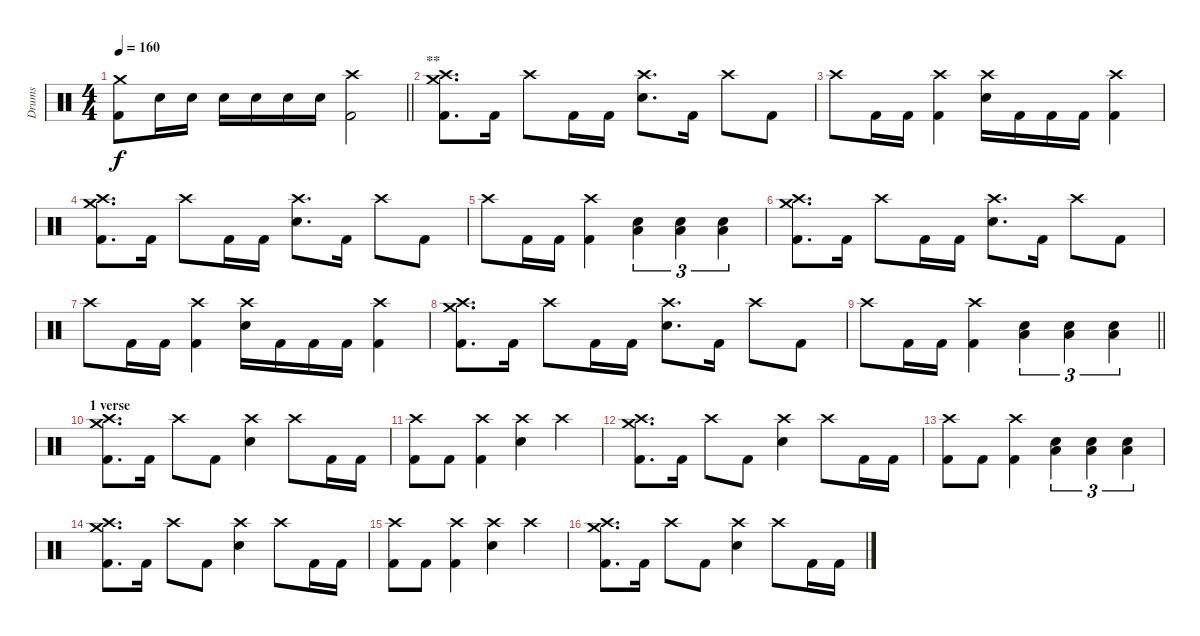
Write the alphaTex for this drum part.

\track ("Drums" "Drums") {instrument percussion}
\staff {score}
\articulation defaults
\ts (4 4)
\tempo 160
\clef neutral
\barLineRight lightlight
\ks c
("Crash medium (hit)" "Kick (hit) 2").8{dy f} "Electric Snare (hit)".16 "Electric Snare (hit)".16 "Electric Snare (hit)".16 "Electric Snare (hit)".16 "Electric Snare (hit)".16 "Electric Snare (hit)".16 ("Crash high (hit)" "Kick (hit) 2").2 |
\section ("" "**")
("Crash high (hit)" "Crash medium (hit)" "Kick (hit) 2").8{d} "Kick (hit) 2".16 "Crash high (hit)".8 "Kick (hit) 2".16 "Kick (hit) 2".16 ("Crash high (hit)" "Electric Snare (hit)").8{d} "Kick (hit) 2".16 "Crash high (hit)".8 "Kick (hit) 2".8 |
"Crash high (hit)".8 "Kick (hit) 2".16 "Kick (hit) 2".16 ("Crash high (hit)" "Kick (hit) 2").4 ("Crash high (hit)" "Electric Snare (hit)").16 "Kick (hit) 2".16 "Kick (hit) 2".16 "Kick (hit) 2".16 ("Crash high (hit)" "Kick (hit) 2").4 |
("Crash high (hit)" "Crash medium (hit)" "Kick (hit) 2").8{d} "Kick (hit) 2".16 "Crash high (hit)".8 "Kick (hit) 2".16 "Kick (hit) 2".16 ("Crash high (hit)" "Electric Snare (hit)").8{d} "Kick (hit) 2".16 "Crash high (hit)".8 "Kick (hit) 2".8 |
"Crash high (hit)".8 "Kick (hit) 2".16 "Kick (hit) 2".16 ("Crash high (hit)" "Kick (hit) 2").4 ("Low Floor Tom (hit)" "Electric Snare (hit)").4{tu (3 2)} ("Low Floor Tom (hit)" "Electric Snare (hit)").4{tu (3 2)} ("Low Floor Tom (hit)" "Electric Snare (hit)").4{tu (3 2)} |
("Crash high (hit)" "Crash medium (hit)" "Kick (hit) 2").8{d} "Kick (hit) 2".16 "Crash high (hit)".8 "Kick (hit) 2".16 "Kick (hit) 2".16 ("Crash high (hit)" "Electric Snare (hit)").8{d} "Kick (hit) 2".16 "Crash high (hit)".8 "Kick (hit) 2".8 |
"Crash high (hit)".8 "Kick (hit) 2".16 "Kick (hit) 2".16 ("Crash high (hit)" "Kick (hit) 2").4 ("Crash high (hit)" "Electric Snare (hit)").16 "Kick (hit) 2".16 "Kick (hit) 2".16 "Kick (hit) 2".16 ("Crash high (hit)" "Kick (hit) 2").4 |
("Crash high (hit)" "Crash medium (hit)" "Kick (hit) 2").8{d} "Kick (hit) 2".16 "Crash high (hit)".8 "Kick (hit) 2".16 "Kick (hit) 2".16 ("Crash high (hit)" "Electric Snare (hit)").8{d} "Kick (hit) 2".16 "Crash high (hit)".8 "Kick (hit) 2".8 |
\barLineRight lightlight "Crash high (hit)".8 "Kick (hit) 2".16 "Kick (hit) 2".16
("Crash high (hit)" "Kick (hit) 2").4 ("Low Floor Tom (hit)" "Electric Snare (hit)").4{tu (3 2)} ("Low Floor Tom (hit)" "Electric Snare (hit)").4{tu (3 2)} ("Low Floor Tom (hit)" "Electric Snare (hit)").4{tu (3 2)} |
\section ("" "1 verse")
("Crash high (hit)" "Crash medium (hit)" "Kick (hit) 2").8{d} "Kick (hit) 2".16 "Crash high (hit)".8 "Kick (hit) 2".8 ("Crash high (hit)" "Electric Snare (hit)").4 "Crash high (hit)".8 "Kick (hit) 2".16 "Kick (hit) 2".16 |
("Crash high (hit)" "Kick (hit) 2").8 "Kick (hit) 2".8 ("Crash high (hit)" "Kick (hit) 2").4 ("Crash high (hit)" "Electric Snare (hit)").4 "Crash high (hit)".4 |
("Crash high (hit)" "Crash medium (hit)" "Kick (hit) 2").8{d} "Kick (hit) 2".16 "Crash high (hit)".8 "Kick (hit) 2".8 ("Crash high (hit)" "Electric Snare (hit)").4 "Crash high (hit)".8 "Kick (hit) 2".16 "Kick (hit) 2".16 |
("Crash high (hit)" "Kick (hit) 2").8 "Kick (hit) 2".8 ("Crash high (hit)" "Kick (hit) 2").4 ("Low Floor Tom (hit)" "Electric Snare (hit)").4{tu (3 2)} ("Low Floor Tom (hit)" "Electric Snare (hit)").4{tu (3 2)} ("Low Floor Tom (hit)" "Electric Snare (hit)").4{tu (3 2)} |
("Crash high (hit)" "Crash medium (hit)" "Kick (hit) 2").8{d} "Kick (hit) 2".16 "Crash high (hit)".8 "Kick (hit) 2".8 ("Crash high (hit)" "Electric Snare (hit)").4 "Crash high (hit)".8 "Kick (hit) 2".16 "Kick (hit) 2".16 |
("Crash high (hit)" "Kick (hit) 2").8 "Kick (hit) 2".8 ("Crash high (hit)" "Kick (hit) 2").4 ("Crash high (hit)" "Electric Snare (hit)").4 "Crash high (hit)".4 |
("Crash high (hit)" "Crash medium (hit)" "Kick (hit) 2").8{d} "Kick (hit) 2".16 "Crash high (hit)".8 "Kick (hit) 2".8 ("Crash high (hit)" "Electric Snare (hit)").4 "Crash high (hit)".8 "Kick (hit) 2".16 "Kick (hit) 2".16
